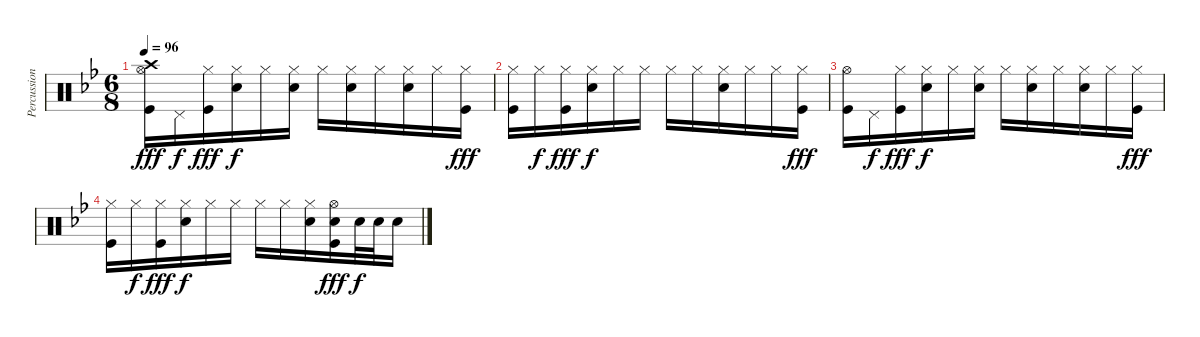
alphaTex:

\track ("Percussion" "Percussion") {instrument percussion}
\staff {score}
\articulation defaults
\ts (6 8)
\tempo 96
\clef neutral
\ks gminor
("Crash high (hit)" "Hi-Hat (open)" "Kick (hit)").16{dy fff} "Pedal Hi-Hat (hit)".16{dy f} ("Hi-Hat (closed)" "Kick (hit)").16{dy fff} ("Hi-Hat (closed)" "Snare (hit) 2").16{dy f} "Hi-Hat (closed)".16 ("Hi-Hat (closed)" "Snare (hit) 2").16 "Hi-Hat (closed)".16 ("Hi-Hat (closed)" "Snare (hit) 2").16 "Hi-Hat (closed)".16 ("Hi-Hat (closed)" "Snare (hit) 2").16 "Hi-Hat (closed)".16 ("Hi-Hat (closed)" "Kick (hit)").16{dy fff} |
("Hi-Hat (closed)" "Kick (hit)").16 "Hi-Hat (closed)".16{dy f} ("Hi-Hat (closed)" "Kick (hit)").16{dy fff} ("Hi-Hat (closed)" "Snare (hit) 2").16{dy f} "Hi-Hat (closed)".16 "Hi-Hat (closed)".16 "Hi-Hat (closed)".16 "Hi-Hat (closed)".16 ("Hi-Hat (closed)" "Snare (hit) 2").16 "Hi-Hat (closed)".16 "Hi-Hat (closed)".16 ("Hi-Hat (closed)" "Kick (hit)").16{dy fff} |
("Hi-Hat (open)" "Kick (hit)").16 "Pedal Hi-Hat (hit)".16{dy f} ("Hi-Hat (closed)" "Kick (hit)").16{dy fff} ("Hi-Hat (closed)" "Snare (hit) 2").16{dy f} "Hi-Hat (closed)".16 ("Hi-Hat (closed)" "Snare (hit) 2").16 "Hi-Hat (closed)".16 ("Hi-Hat (closed)" "Snare (hit) 2").16 "Hi-Hat (closed)".16 ("Hi-Hat (closed)" "Snare (hit) 2").16 "Hi-Hat (closed)".16 ("Hi-Hat (closed)" "Kick (hit)").16{dy fff} |
("Hi-Hat (closed)" "Kick (hit)").16 "Hi-Hat (closed)".16{dy f} ("Hi-Hat (closed)" "Kick (hit)").16{dy fff} ("Hi-Hat (closed)" "Snare (hit) 2").16{dy f} "Hi-Hat (closed)".16 "Hi-Hat (closed)".16 "Hi-Hat (closed)".16 "Hi-Hat (closed)".16 ("Hi-Hat (closed)" "Snare (hit) 2").16 ("Hi-Hat (open)" "Snare (hit) 2" "Kick (hit)").16{dy fff} "Snare (hit) 2".32{dy f} "Snare (hit) 2".32 "Snare (hit) 2".16
